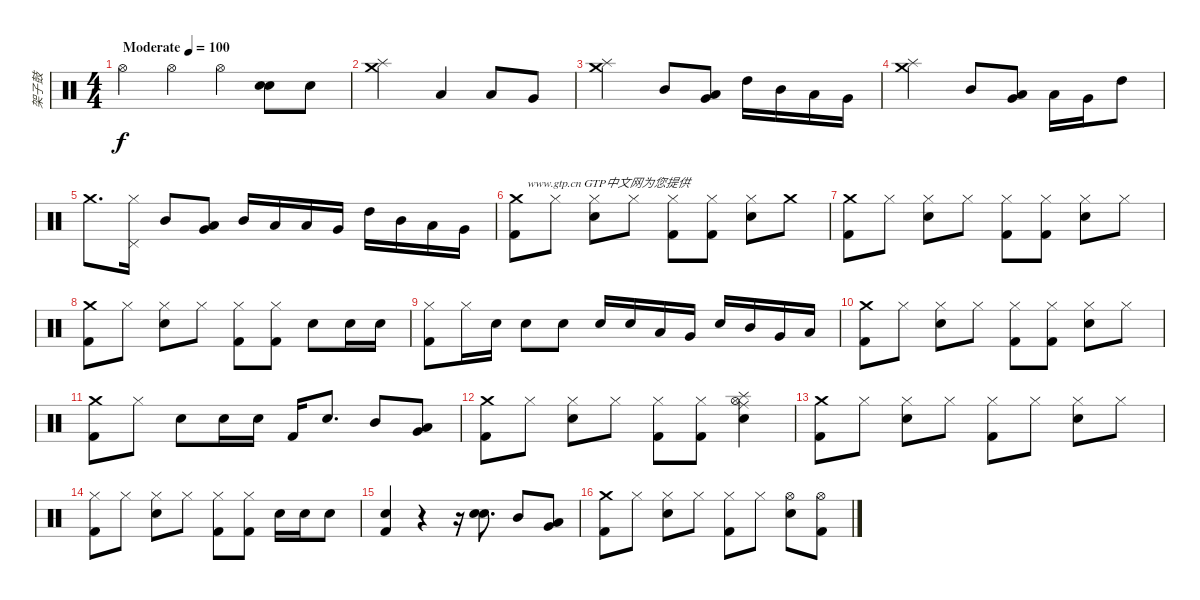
\track ("架子鼓" "架子鼓") {instrument percussion}
\staff {score}
\articulation defaults
\ts (4 4)
\tempo (100 "Moderate")
\clef neutral
\ks c "Hi-Hat (open)".4{dy f} "Hi-Hat (open)".4 "Hi-Hat (open)".4
("Electric Snare (hit)" "Snare (hit) 2").8 "Snare (hit) 2".8 |
("Crash medium (hit)" "Splash (hit)").2 "Low Tom (hit)".4 "Low Tom (hit)".8 "Very Low Tom (hit)".8 |
("Crash medium (hit)" "Splash (hit)").2 "Mid Tom (hit)".8 ("Very Low Tom (hit)" "Low Tom (hit)").8 "High Tom (hit)".16 "Mid Tom (hit)".16 "Low Tom (hit)".16 "Very Low Tom (hit)".16 |
("Crash medium (hit)" "Splash (hit)").2 "Mid Tom (hit)".8 ("Very Low Tom (hit)" "Low Tom (hit)").8 "Low Tom (hit)".16 "Very Low Tom (hit)".16 "High Tom (hit)".8 |
"Crash medium (hit)".8{d} ("Pedal Hi-Hat (hit)" "Hi-Hat (closed)").16 "Mid Tom (hit)".8 ("Very Low Tom (hit)" "Low Tom (hit)").8 "Mid Tom (hit)".16 "Low Tom (hit)".16 "Low Tom (hit)".16 "Very Low Tom (hit)".16 "High Tom (hit)".16 "Mid Tom (hit)".16 "Low Tom (hit)".16 "Very Low Tom (hit)".16{txt "                     www.gtp.cn GTP中文网为您提供"} |
("Crash medium (hit)" "Kick (hit) 2").8 "Hi-Hat (closed)".8 ("Hi-Hat (closed)" "Electric Snare (hit)").8 "Hi-Hat (closed)".8 ("Hi-Hat (closed)" "Kick (hit) 2").8 ("Hi-Hat (closed)" "Kick (hit) 2").8 ("Hi-Hat (closed)" "Electric Snare (hit)").8 "Crash medium (hit)".8 |
("Crash medium (hit)" "Kick (hit) 2").8 "Hi-Hat (closed)".8 ("Hi-Hat (closed)" "Electric Snare (hit)").8 "Hi-Hat (closed)".8 ("Hi-Hat (closed)" "Kick (hit) 2").8 ("Hi-Hat (closed)" "Kick (hit) 2").8 ("Hi-Hat (closed)" "Electric Snare (hit)").8 "Hi-Hat (closed)".8 |
("Crash medium (hit)" "Kick (hit) 2").8 "Hi-Hat (closed)".8 ("Hi-Hat (closed)" "Electric Snare (hit)").8 "Hi-Hat (closed)".8 ("Hi-Hat (closed)" "Kick (hit) 2").8 ("Hi-Hat (closed)" "Kick (hit) 2").8 "Electric Snare (hit)".8 "Electric Snare (hit)".16 "Electric Snare (hit)".16 |
("Hi-Hat (closed)" "Kick (hit) 2").8 "Hi-Hat (closed)".16 "Electric Snare (hit)".16 "Electric Snare (hit)".8 "Electric Snare (hit)".8 "Electric Snare (hit)".16 "Electric Snare (hit)".16 "Low Tom (hit)".16 "Very Low Tom (hit)".16 "Electric Snare (hit)".16 "Mid Tom (hit)".16 "Very Low Tom (hit)".16 "Low Tom (hit)".16 |
("Crash medium (hit)" "Kick (hit) 2").8 "Hi-Hat (closed)".8 ("Hi-Hat (closed)" "Electric Snare (hit)").8 "Hi-Hat (closed)".8 ("Hi-Hat (closed)" "Kick (hit) 2").8 ("Hi-Hat (closed)" "Kick (hit) 2").8 ("Hi-Hat (closed)" "Electric Snare (hit)").8 "Hi-Hat (closed)".8 |
("Crash medium (hit)" "Kick (hit) 2").8 "Hi-Hat (closed)".8 "Electric Snare (hit)".8 "Electric Snare (hit)".16 "Electric Snare (hit)".16 "Kick (hit) 2".16 "Electric Snare (hit)".8{d} "Mid Tom (hit)".8 ("Very Low Tom (hit)" "Low Tom (hit)").8 |
("Crash medium (hit)" "Kick (hit) 2").8 "Hi-Hat (closed)".8 ("Hi-Hat (closed)" "Electric Snare (hit)").8 "Hi-Hat (closed)".8 ("Hi-Hat (closed)" "Kick (hit) 2").8 ("Hi-Hat (closed)" "Kick (hit) 2").8 ("Hi-Hat (open)" "Electric Snare (hit)" "Splash (hit)" "Ride (middle)").4 |
("Crash medium (hit)" "Kick (hit) 2").8 "Hi-Hat (closed)".8 ("Hi-Hat (closed)" "Electric Snare (hit)").8 "Hi-Hat (closed)".8 ("Hi-Hat (closed)" "Kick (hit) 2").8 "Hi-Hat (closed)".8 ("Hi-Hat (closed)" "Electric Snare (hit)").8 "Hi-Hat (closed)".8 |
("Hi-Hat (closed)" "Kick (hit) 2").8 "Hi-Hat (closed)".8 ("Hi-Hat (closed)" "Electric Snare (hit)").8 "Hi-Hat (closed)".8 ("Hi-Hat (closed)" "Kick (hit) 2").8 ("Hi-Hat (closed)" "Kick (hit) 2").8 "Electric Snare (hit)".16 "Electric Snare (hit)".16 "Electric Snare (hit)".8 |
("Electric Snare (hit)" "Kick (hit) 2").4 r.4 r.16 ("Electric Snare (hit)" "Snare (hit) 2").8{d} "Mid Tom (hit)".8 ("Very Low Tom (hit)" "Low Tom (hit)").8 |
("Crash medium (hit)" "Kick (hit) 2").8 "Hi-Hat (closed)".8 ("Hi-Hat (closed)" "Electric Snare (hit)").8 "Hi-Hat (closed)".8 ("Hi-Hat (closed)" "Kick (hit) 2").8 "Hi-Hat (closed)".8 ("Hi-Hat (open)" "Electric Snare (hit)").8 ("Hi-Hat (open)" "Kick (hit) 2").8
